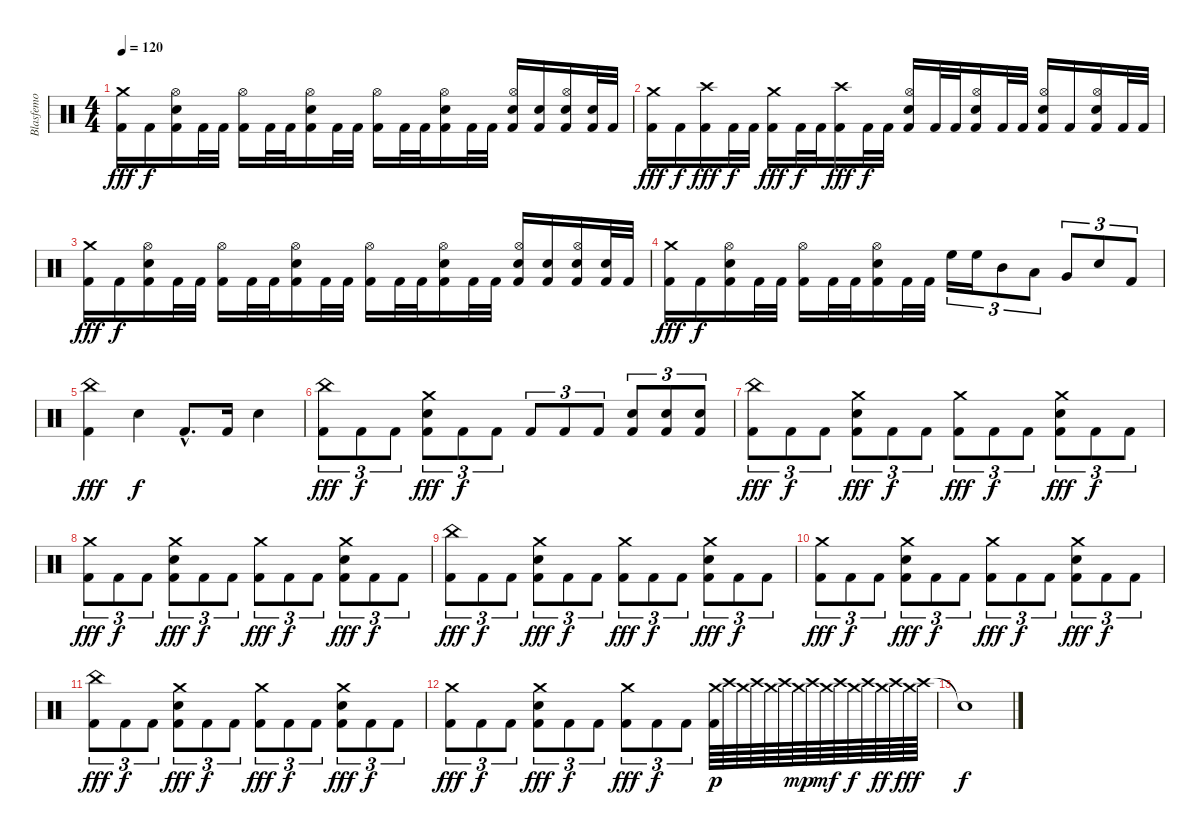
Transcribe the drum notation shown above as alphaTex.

\track ("Blasfemo" "Blasfemo") {instrument percussion}
\staff {score}
\articulation defaults
\ts (4 4)
\tempo 120
\clef neutral
\ks c
("Crash medium (hit)" "Kick (hit) 2").16{dy fff} "Kick (hit) 2".16{dy f} ("Hi-Hat (open)" "Electric Snare (hit)" "Kick (hit) 2").16 "Kick (hit) 2".32 "Kick (hit) 2".32 ("Hi-Hat (open)" "Kick (hit) 2").16 "Kick (hit) 2".32 "Kick (hit) 2".32 ("Hi-Hat (open)" "Electric Snare (hit)" "Kick (hit) 2").16 "Kick (hit) 2".32 "Kick (hit) 2".32 ("Hi-Hat (open)" "Kick (hit) 2").16 "Kick (hit) 2".32 "Kick (hit) 2".32 ("Hi-Hat (open)" "Electric Snare (hit)" "Kick (hit) 2").16 "Kick (hit) 2".32 "Kick (hit) 2".32 ("Hi-Hat (open)" "Electric Snare (hit)" "Kick (hit) 2").16 ("Electric Snare (hit)" "Kick (hit) 2").16 ("Hi-Hat (open)" "Electric Snare (hit)" "Kick (hit) 2").16 ("Electric Snare (hit)" "Kick (hit) 2").32 "Kick (hit) 2".32 |
("Crash medium (hit)" "Kick (hit) 2").16{dy fff} "Kick (hit) 2".16{dy f} ("Crash high (hit)" "Kick (hit) 2").16{dy fff} "Kick (hit) 2".32{dy f} "Kick (hit) 2".32 ("Crash medium (hit)" "Kick (hit) 2").16{dy fff} "Kick (hit) 2".32{dy f} "Kick (hit) 2".32 ("Crash high (hit)" "Kick (hit) 2").16{dy fff} "Kick (hit) 2".32{dy f} "Kick (hit) 2".32 ("Hi-Hat (open)" "Electric Snare (hit)" "Kick (hit) 2").16 "Kick (hit) 2".32 "Kick (hit) 2".32 ("Hi-Hat (open)" "Electric Snare (hit)" "Kick (hit) 2").16 "Kick (hit) 2".32 "Kick (hit) 2".32 ("Hi-Hat (open)" "Electric Snare (hit)" "Kick (hit) 2").16 "Kick (hit) 2".16 ("Hi-Hat (open)" "Electric Snare (hit)" "Kick (hit) 2").16 "Kick (hit) 2".32 "Kick (hit) 2".32 |
("Crash medium (hit)" "Kick (hit) 2").16{dy fff} "Kick (hit) 2".16{dy f} ("Hi-Hat (open)" "Electric Snare (hit)" "Kick (hit) 2").16 "Kick (hit) 2".32 "Kick (hit) 2".32 ("Hi-Hat (open)" "Kick (hit) 2").16 "Kick (hit) 2".32 "Kick (hit) 2".32 ("Hi-Hat (open)" "Electric Snare (hit)" "Kick (hit) 2").16 "Kick (hit) 2".32 "Kick (hit) 2".32 ("Hi-Hat (open)" "Kick (hit) 2").16 "Kick (hit) 2".32 "Kick (hit) 2".32 ("Hi-Hat (open)" "Electric Snare (hit)" "Kick (hit) 2").16 "Kick (hit) 2".32 "Kick (hit) 2".32 ("Hi-Hat (open)" "Electric Snare (hit)" "Kick (hit) 2").16 ("Electric Snare (hit)" "Kick (hit) 2").16 ("Hi-Hat (open)" "Electric Snare (hit)" "Kick (hit) 2").16 ("Electric Snare (hit)" "Kick (hit) 2").32 "Kick (hit) 2".32 |
("Crash medium (hit)" "Kick (hit) 2").16{dy fff} "Kick (hit) 2".16{dy f} ("Hi-Hat (open)" "Electric Snare (hit)" "Kick (hit) 2").16 "Kick (hit) 2".32 "Kick (hit) 2".32 ("Hi-Hat (open)" "Kick (hit) 2").16 "Kick (hit) 2".32 "Kick (hit) 2".32 ("Hi-Hat (open)" "Electric Snare (hit)" "Kick (hit) 2").16 "Kick (hit) 2".32 "Kick (hit) 2".32 "High Floor Tom (hit)".16{tu (3 2)} "High Floor Tom (hit)".16{tu (3 2)} "Mid Tom (hit)".8{tu (3 2)} "Low Tom (hit)".8{tu (3 2)} "Very Low Tom (hit)".8{tu (3 2)} "Electric Snare (hit)".8{tu (3 2)} "Kick (hit) 2".8{tu (3 2)} |
("China (hit)" "Kick (hit) 2").4{dy fff} "Electric Snare (hit)".4{dy f} "Kick (hit) 2"{hac}.8{d} "Kick (hit) 2".16 "Electric Snare (hit)".4 |
("China (hit)" "Kick (hit) 2").8{tu (3 2) dy fff} "Kick (hit) 2".8{tu (3 2) dy f} "Kick (hit) 2".8{tu (3 2)} ("Crash medium (hit)" "Electric Snare (hit)" "Kick (hit) 2").8{tu (3 2) dy fff} "Kick (hit) 2".8{tu (3 2) dy f} "Kick (hit) 2".8{tu (3 2)} "Kick (hit) 2".8{tu (3 2)} "Kick (hit) 2".8{tu (3 2)} "Kick (hit) 2".8{tu (3 2)} ("Electric Snare (hit)" "Kick (hit) 2").8{tu (3 2)} ("Electric Snare (hit)" "Kick (hit) 2").8{tu (3 2)} ("Electric Snare (hit)" "Kick (hit) 2").8{tu (3 2)} |
("China (hit)" "Kick (hit) 2").8{tu (3 2) dy fff} "Kick (hit) 2".8{tu (3 2) dy f} "Kick (hit) 2".8{tu (3 2)} ("Crash medium (hit)" "Electric Snare (hit)" "Kick (hit) 2").8{tu (3 2) dy fff} "Kick (hit) 2".8{tu (3 2) dy f} "Kick (hit) 2".8{tu (3 2)} ("Crash medium (hit)" "Kick (hit) 2").8{tu (3 2) dy fff} "Kick (hit) 2".8{tu (3 2) dy f} "Kick (hit) 2".8{tu (3 2)} ("Crash medium (hit)" "Electric Snare (hit)" "Kick (hit) 2").8{tu (3 2) dy fff} "Kick (hit) 2".8{tu (3 2) dy f} "Kick (hit) 2".8{tu (3 2)} |
("Crash medium (hit)" "Kick (hit) 2").8{tu (3 2) dy fff} "Kick (hit) 2".8{tu (3 2) dy f} "Kick (hit) 2".8{tu (3 2)} ("Crash medium (hit)" "Electric Snare (hit)" "Kick (hit) 2").8{tu (3 2) dy fff} "Kick (hit) 2".8{tu (3 2) dy f} "Kick (hit) 2".8{tu (3 2)} ("Crash medium (hit)" "Kick (hit) 2").8{tu (3 2) dy fff} "Kick (hit) 2".8{tu (3 2) dy f} "Kick (hit) 2".8{tu (3 2)} ("Crash medium (hit)" "Electric Snare (hit)" "Kick (hit) 2").8{tu (3 2) dy fff} "Kick (hit) 2".8{tu (3 2) dy f} "Kick (hit) 2".8{tu (3 2)} |
("China (hit)" "Kick (hit) 2").8{tu (3 2) dy fff} "Kick (hit) 2".8{tu (3 2) dy f} "Kick (hit) 2".8{tu (3 2)} ("Crash medium (hit)" "Electric Snare (hit)" "Kick (hit) 2").8{tu (3 2) dy fff} "Kick (hit) 2".8{tu (3 2) dy f} "Kick (hit) 2".8{tu (3 2)} ("Crash medium (hit)" "Kick (hit) 2").8{tu (3 2) dy fff} "Kick (hit) 2".8{tu (3 2) dy f} "Kick (hit) 2".8{tu (3 2)} ("Crash medium (hit)" "Electric Snare (hit)" "Kick (hit) 2").8{tu (3 2) dy fff} "Kick (hit) 2".8{tu (3 2) dy f} "Kick (hit) 2".8{tu (3 2)} |
("Crash medium (hit)" "Kick (hit) 2").8{tu (3 2) dy fff} "Kick (hit) 2".8{tu (3 2) dy f} "Kick (hit) 2".8{tu (3 2)} ("Crash medium (hit)" "Electric Snare (hit)" "Kick (hit) 2").8{tu (3 2) dy fff} "Kick (hit) 2".8{tu (3 2) dy f} "Kick (hit) 2".8{tu (3 2)} ("Crash medium (hit)" "Kick (hit) 2").8{tu (3 2) dy fff} "Kick (hit) 2".8{tu (3 2) dy f} "Kick (hit) 2".8{tu (3 2)} ("Crash medium (hit)" "Electric Snare (hit)" "Kick (hit) 2").8{tu (3 2) dy fff} "Kick (hit) 2".8{tu (3 2) dy f} "Kick (hit) 2".8{tu (3 2)} |
("China (hit)" "Kick (hit) 2").8{tu (3 2) dy fff} "Kick (hit) 2".8{tu (3 2) dy f} "Kick (hit) 2".8{tu (3 2)} ("Crash medium (hit)" "Electric Snare (hit)" "Kick (hit) 2").8{tu (3 2) dy fff} "Kick (hit) 2".8{tu (3 2) dy f} "Kick (hit) 2".8{tu (3 2)} ("Crash medium (hit)" "Kick (hit) 2").8{tu (3 2) dy fff} "Kick (hit) 2".8{tu (3 2) dy f} "Kick (hit) 2".8{tu (3 2)} ("Crash medium (hit)" "Electric Snare (hit)" "Kick (hit) 2").8{tu (3 2) dy fff} "Kick (hit) 2".8{tu (3 2) dy f} "Kick (hit) 2".8{tu (3 2)} |
("Crash medium (hit)" "Kick (hit) 2").8{tu (3 2) dy fff} "Kick (hit) 2".8{tu (3 2) dy f} "Kick (hit) 2".8{tu (3 2)} ("Crash medium (hit)" "Electric Snare (hit)" "Kick (hit) 2").8{tu (3 2) dy fff} "Kick (hit) 2".8{tu (3 2) dy f} "Kick (hit) 2".8{tu (3 2)} ("Crash medium (hit)" "Kick (hit) 2").8{tu (3 2) dy fff} "Kick (hit) 2".8{tu (3 2) dy f} "Kick (hit) 2".8{tu (3 2)} ("Crash medium (hit)" "Kick (hit) 2").64{dy p} "Crash high (hit)".64 "Crash medium (hit)".64 "Crash high (hit)".64 "Crash medium (hit)".64 "Crash high (hit)".64 "Crash medium (hit)".64{dy mp} "Crash high (hit)".64 "Crash medium (hit)".64{dy mf} "Crash high (hit)".64 "Crash medium (hit)".64{dy f} "Crash high (hit)".64 "Crash medium (hit)".64{dy ff} "Crash high (hit)".64 "Crash medium (hit)".64{dy fff} "Crash high (hit)".64 |
"Snare (hit)"{t}.1{dy f}
